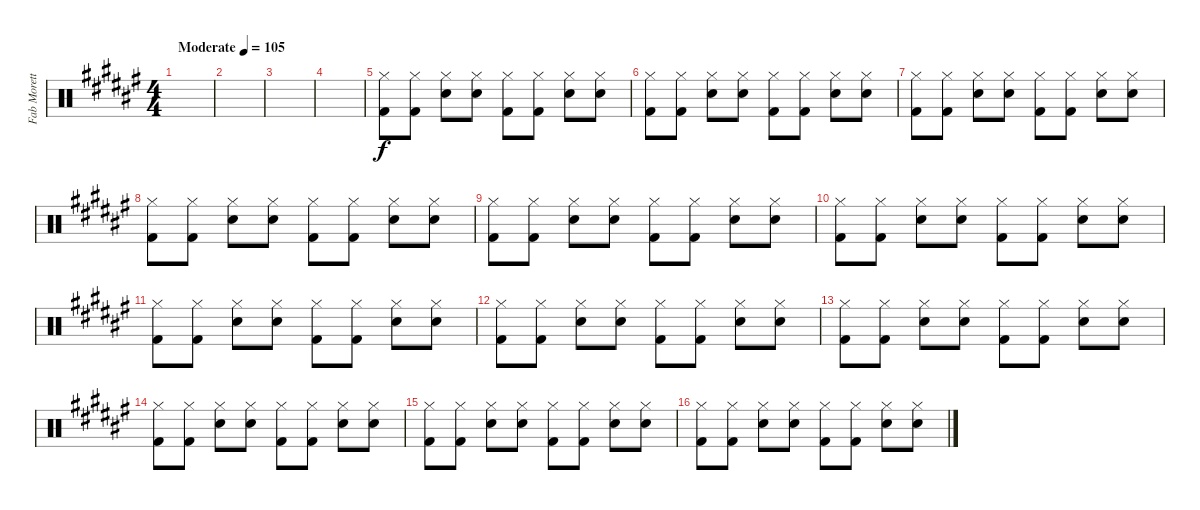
\track ("Fab Moretti - Drums" "Fab Morett") {instrument percussion}
\staff {score}
\articulation defaults
\ts (4 4)
\tempo (105 "Moderate")
\clef neutral
\ks f#
|
|
|
|
("Hi-Hat (closed)" "Kick (hit) 2").8 ("Hi-Hat (closed)" "Kick (hit) 2").8 ("Hi-Hat (closed)" "Snare (hit) 2").8 ("Hi-Hat (closed)" "Snare (hit) 2").8 ("Hi-Hat (closed)" "Kick (hit) 2").8 ("Hi-Hat (closed)" "Kick (hit) 2").8 ("Hi-Hat (closed)" "Snare (hit) 2").8 ("Hi-Hat (closed)" "Snare (hit) 2").8 |
("Hi-Hat (closed)" "Kick (hit) 2").8 ("Hi-Hat (closed)" "Kick (hit) 2").8 ("Hi-Hat (closed)" "Snare (hit) 2").8 ("Hi-Hat (closed)" "Snare (hit) 2").8 ("Hi-Hat (closed)" "Kick (hit) 2").8 ("Hi-Hat (closed)" "Kick (hit) 2").8 ("Hi-Hat (closed)" "Snare (hit) 2").8 ("Hi-Hat (closed)" "Snare (hit) 2").8 |
("Hi-Hat (closed)" "Kick (hit) 2").8 ("Hi-Hat (closed)" "Kick (hit) 2").8 ("Hi-Hat (closed)" "Snare (hit) 2").8 ("Hi-Hat (closed)" "Snare (hit) 2").8 ("Hi-Hat (closed)" "Kick (hit) 2").8 ("Hi-Hat (closed)" "Kick (hit) 2").8 ("Hi-Hat (closed)" "Snare (hit) 2").8 ("Hi-Hat (closed)" "Snare (hit) 2").8 |
("Hi-Hat (closed)" "Kick (hit) 2").8 ("Hi-Hat (closed)" "Kick (hit) 2").8 ("Hi-Hat (closed)" "Snare (hit) 2").8 ("Hi-Hat (closed)" "Snare (hit) 2").8 ("Hi-Hat (closed)" "Kick (hit) 2").8 ("Hi-Hat (closed)" "Kick (hit) 2").8 ("Hi-Hat (closed)" "Snare (hit) 2").8 ("Hi-Hat (closed)" "Snare (hit) 2").8 |
("Hi-Hat (closed)" "Kick (hit) 2").8 ("Hi-Hat (closed)" "Kick (hit) 2").8 ("Hi-Hat (closed)" "Snare (hit) 2").8 ("Hi-Hat (closed)" "Snare (hit) 2").8 ("Hi-Hat (closed)" "Kick (hit) 2").8 ("Hi-Hat (closed)" "Kick (hit) 2").8 ("Hi-Hat (closed)" "Snare (hit) 2").8 ("Hi-Hat (closed)" "Snare (hit) 2").8 |
("Hi-Hat (closed)" "Kick (hit) 2").8 ("Hi-Hat (closed)" "Kick (hit) 2").8 ("Hi-Hat (closed)" "Snare (hit) 2").8 ("Hi-Hat (closed)" "Snare (hit) 2").8 ("Hi-Hat (closed)" "Kick (hit) 2").8 ("Hi-Hat (closed)" "Kick (hit) 2").8 ("Hi-Hat (closed)" "Snare (hit) 2").8 ("Hi-Hat (closed)" "Snare (hit) 2").8 |
("Hi-Hat (closed)" "Kick (hit) 2").8 ("Hi-Hat (closed)" "Kick (hit) 2").8 ("Hi-Hat (closed)" "Snare (hit) 2").8 ("Hi-Hat (closed)" "Snare (hit) 2").8 ("Hi-Hat (closed)" "Kick (hit) 2").8 ("Hi-Hat (closed)" "Kick (hit) 2").8 ("Hi-Hat (closed)" "Snare (hit) 2").8 ("Hi-Hat (closed)" "Snare (hit) 2").8 |
("Hi-Hat (closed)" "Kick (hit) 2").8 ("Hi-Hat (closed)" "Kick (hit) 2").8 ("Hi-Hat (closed)" "Snare (hit) 2").8 ("Hi-Hat (closed)" "Snare (hit) 2").8 ("Hi-Hat (closed)" "Kick (hit) 2").8 ("Hi-Hat (closed)" "Kick (hit) 2").8 ("Hi-Hat (closed)" "Snare (hit) 2").8 ("Hi-Hat (closed)" "Snare (hit) 2").8 |
("Hi-Hat (closed)" "Kick (hit) 2").8 ("Hi-Hat (closed)" "Kick (hit) 2").8 ("Hi-Hat (closed)" "Snare (hit) 2").8 ("Hi-Hat (closed)" "Snare (hit) 2").8 ("Hi-Hat (closed)" "Kick (hit) 2").8 ("Hi-Hat (closed)" "Kick (hit) 2").8 ("Hi-Hat (closed)" "Snare (hit) 2").8 ("Hi-Hat (closed)" "Snare (hit) 2").8 |
("Hi-Hat (closed)" "Kick (hit) 2").8 ("Hi-Hat (closed)" "Kick (hit) 2").8 ("Hi-Hat (closed)" "Snare (hit) 2").8 ("Hi-Hat (closed)" "Snare (hit) 2").8 ("Hi-Hat (closed)" "Kick (hit) 2").8 ("Hi-Hat (closed)" "Kick (hit) 2").8 ("Hi-Hat (closed)" "Snare (hit) 2").8 ("Hi-Hat (closed)" "Snare (hit) 2").8 |
("Hi-Hat (closed)" "Kick (hit) 2").8 ("Hi-Hat (closed)" "Kick (hit) 2").8 ("Hi-Hat (closed)" "Snare (hit) 2").8 ("Hi-Hat (closed)" "Snare (hit) 2").8 ("Hi-Hat (closed)" "Kick (hit) 2").8 ("Hi-Hat (closed)" "Kick (hit) 2").8 ("Hi-Hat (closed)" "Snare (hit) 2").8 ("Hi-Hat (closed)" "Snare (hit) 2").8 |
("Hi-Hat (closed)" "Kick (hit) 2").8 ("Hi-Hat (closed)" "Kick (hit) 2").8 ("Hi-Hat (closed)" "Snare (hit) 2").8 ("Hi-Hat (closed)" "Snare (hit) 2").8 ("Hi-Hat (closed)" "Kick (hit) 2").8 ("Hi-Hat (closed)" "Kick (hit) 2").8 ("Hi-Hat (closed)" "Snare (hit) 2").8 ("Hi-Hat (closed)" "Snare (hit) 2").8
